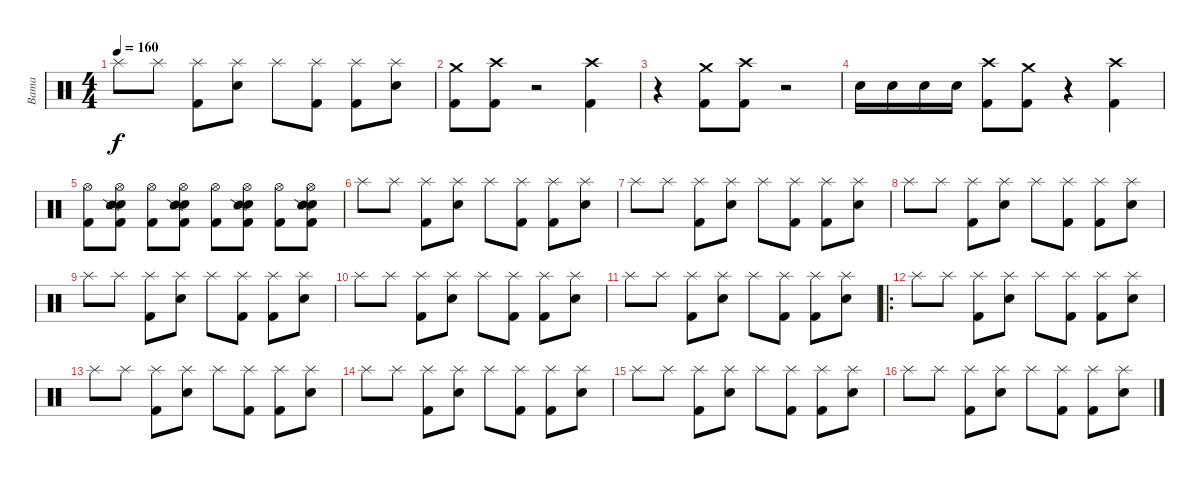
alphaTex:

\track ("Bama" "Bama") {instrument percussion}
\staff {score}
\articulation defaults
\ts (4 4)
\tempo 160
\clef neutral
\ks c "Splash (hit)".8{dy f} "Splash (hit)".8
("Splash (hit)" "Kick (hit) 2").8 ("Splash (hit)" "Electric Snare (hit)").8 "Splash (hit)".8 ("Splash (hit)" "Kick (hit) 2").8 ("Splash (hit)" "Kick (hit) 2").8 ("Splash (hit)" "Electric Snare (hit)").8 |
("Crash medium (hit)" "Kick (hit) 2").8 ("Crash high (hit)" "Kick (hit) 2").8 r.2 ("Crash high (hit)" "Kick (hit) 2").4 |
r.4 ("Crash medium (hit)" "Kick (hit) 2").8 ("Crash high (hit)" "Kick (hit) 2").8 r.2 |
"Electric Snare (hit)".16 "Electric Snare (hit)".16 "Electric Snare (hit)".16 "Electric Snare (hit)".16 ("Crash high (hit)" "Kick (hit) 2").8 ("Crash medium (hit)" "Kick (hit) 2").8 r.4 ("Crash high (hit)" "Kick (hit) 2").4 |
("Hi-Hat (open)" "Kick (hit) 2").8 ("Hi-Hat (open)" "Electric Snare (hit)" "Snare (side stick) 2" "Kick (hit) 2").8 ("Hi-Hat (open)" "Kick (hit) 2").8 ("Hi-Hat (open)" "Electric Snare (hit)" "Snare (side stick) 2" "Kick (hit) 2").8 ("Hi-Hat (open)" "Kick (hit) 2").8 ("Hi-Hat (open)" "Electric Snare (hit)" "Snare (side stick) 2" "Kick (hit) 2").8 ("Hi-Hat (open)" "Kick (hit) 2").8 ("Hi-Hat (open)" "Electric Snare (hit)" "Snare (side stick) 2" "Kick (hit) 2").8 |
"Splash (hit)".8 "Splash (hit)".8 ("Splash (hit)" "Kick (hit) 2").8 ("Splash (hit)" "Electric Snare (hit)").8 "Splash (hit)".8 ("Splash (hit)" "Kick (hit) 2").8 ("Splash (hit)" "Kick (hit) 2").8 ("Splash (hit)" "Electric Snare (hit)").8 |
"Splash (hit)".8 "Splash (hit)".8 ("Splash (hit)" "Kick (hit) 2").8 ("Splash (hit)" "Electric Snare (hit)").8 "Splash (hit)".8 ("Splash (hit)" "Kick (hit) 2").8 ("Splash (hit)" "Kick (hit) 2").8 ("Splash (hit)" "Electric Snare (hit)").8 |
"Splash (hit)".8 "Splash (hit)".8 ("Splash (hit)" "Kick (hit) 2").8 ("Splash (hit)" "Electric Snare (hit)").8 "Splash (hit)".8 ("Splash (hit)" "Kick (hit) 2").8 ("Splash (hit)" "Kick (hit) 2").8 ("Splash (hit)" "Electric Snare (hit)").8 |
"Splash (hit)".8 "Splash (hit)".8 ("Splash (hit)" "Kick (hit) 2").8 ("Splash (hit)" "Electric Snare (hit)").8 "Splash (hit)".8 ("Splash (hit)" "Kick (hit) 2").8 ("Splash (hit)" "Kick (hit) 2").8 ("Splash (hit)" "Electric Snare (hit)").8 |
"Splash (hit)".8 "Splash (hit)".8 ("Splash (hit)" "Kick (hit) 2").8 ("Splash (hit)" "Electric Snare (hit)").8 "Splash (hit)".8 ("Splash (hit)" "Kick (hit) 2").8 ("Splash (hit)" "Kick (hit) 2").8 ("Splash (hit)" "Electric Snare (hit)").8 |
"Splash (hit)".8 "Splash (hit)".8 ("Splash (hit)" "Kick (hit) 2").8 ("Splash (hit)" "Electric Snare (hit)").8 "Splash (hit)".8 ("Splash (hit)" "Kick (hit) 2").8 ("Splash (hit)" "Kick (hit) 2").8 ("Splash (hit)" "Electric Snare (hit)").8 |
\ro "Splash (hit)".8 "Splash (hit)".8
("Splash (hit)" "Kick (hit) 2").8 ("Splash (hit)" "Electric Snare (hit)").8 "Splash (hit)".8 ("Splash (hit)" "Kick (hit) 2").8 ("Splash (hit)" "Kick (hit) 2").8 ("Splash (hit)" "Electric Snare (hit)").8 |
"Splash (hit)".8 "Splash (hit)".8 ("Splash (hit)" "Kick (hit) 2").8 ("Splash (hit)" "Electric Snare (hit)").8 "Splash (hit)".8 ("Splash (hit)" "Kick (hit) 2").8 ("Splash (hit)" "Kick (hit) 2").8 ("Splash (hit)" "Electric Snare (hit)").8 |
"Splash (hit)".8 "Splash (hit)".8 ("Splash (hit)" "Kick (hit) 2").8 ("Splash (hit)" "Electric Snare (hit)").8 "Splash (hit)".8 ("Splash (hit)" "Kick (hit) 2").8 ("Splash (hit)" "Kick (hit) 2").8 ("Splash (hit)" "Electric Snare (hit)").8 |
"Splash (hit)".8 "Splash (hit)".8 ("Splash (hit)" "Kick (hit) 2").8 ("Splash (hit)" "Electric Snare (hit)").8 "Splash (hit)".8 ("Splash (hit)" "Kick (hit) 2").8 ("Splash (hit)" "Kick (hit) 2").8 ("Splash (hit)" "Electric Snare (hit)").8 |
"Splash (hit)".8 "Splash (hit)".8 ("Splash (hit)" "Kick (hit) 2").8 ("Splash (hit)" "Electric Snare (hit)").8 "Splash (hit)".8 ("Splash (hit)" "Kick (hit) 2").8 ("Splash (hit)" "Kick (hit) 2").8 ("Splash (hit)" "Electric Snare (hit)").8
